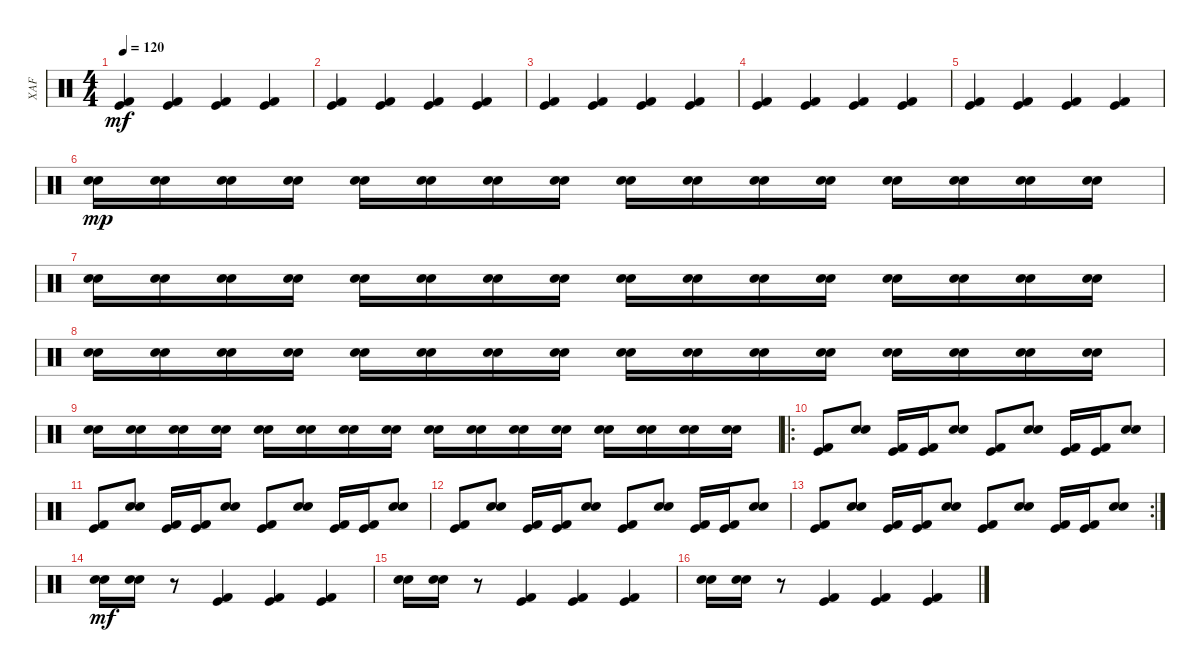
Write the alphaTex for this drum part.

\track ("XAF" "XAF") {instrument percussion}
\staff {score}
\articulation defaults
\ts (4 4)
\tempo 120
\clef neutral
\ks c
("Kick (hit) 2" "Kick (hit)").4{dy mf} ("Kick (hit) 2" "Kick (hit)").4 ("Kick (hit) 2" "Kick (hit)").4 ("Kick (hit) 2" "Kick (hit)").4 |
("Kick (hit) 2" "Kick (hit)").4 ("Kick (hit) 2" "Kick (hit)").4 ("Kick (hit) 2" "Kick (hit)").4 ("Kick (hit) 2" "Kick (hit)").4 |
("Kick (hit) 2" "Kick (hit)").4 ("Kick (hit) 2" "Kick (hit)").4 ("Kick (hit) 2" "Kick (hit)").4 ("Kick (hit) 2" "Kick (hit)").4 |
("Kick (hit) 2" "Kick (hit)").4 ("Kick (hit) 2" "Kick (hit)").4 ("Kick (hit) 2" "Kick (hit)").4 ("Kick (hit) 2" "Kick (hit)").4 |
("Kick (hit) 2" "Kick (hit)").4 ("Kick (hit) 2" "Kick (hit)").4 ("Kick (hit) 2" "Kick (hit)").4 ("Kick (hit) 2" "Kick (hit)").4 |
("Electric Snare (hit)" "Snare (hit) 2").16{dy mp} ("Electric Snare (hit)" "Snare (hit) 2").16 ("Electric Snare (hit)" "Snare (hit) 2").16 ("Electric Snare (hit)" "Snare (hit) 2").16 ("Electric Snare (hit)" "Snare (hit) 2").16 ("Electric Snare (hit)" "Snare (hit) 2").16 ("Electric Snare (hit)" "Snare (hit) 2").16 ("Electric Snare (hit)" "Snare (hit) 2").16 ("Electric Snare (hit)" "Snare (hit) 2").16 ("Electric Snare (hit)" "Snare (hit) 2").16 ("Electric Snare (hit)" "Snare (hit) 2").16 ("Electric Snare (hit)" "Snare (hit) 2").16 ("Electric Snare (hit)" "Snare (hit) 2").16 ("Electric Snare (hit)" "Snare (hit) 2").16 ("Electric Snare (hit)" "Snare (hit) 2").16 ("Electric Snare (hit)" "Snare (hit) 2").16 |
("Electric Snare (hit)" "Snare (hit) 2").16 ("Electric Snare (hit)" "Snare (hit) 2").16 ("Electric Snare (hit)" "Snare (hit) 2").16 ("Electric Snare (hit)" "Snare (hit) 2").16 ("Electric Snare (hit)" "Snare (hit) 2").16 ("Electric Snare (hit)" "Snare (hit) 2").16 ("Electric Snare (hit)" "Snare (hit) 2").16 ("Electric Snare (hit)" "Snare (hit) 2").16 ("Electric Snare (hit)" "Snare (hit) 2").16 ("Electric Snare (hit)" "Snare (hit) 2").16 ("Electric Snare (hit)" "Snare (hit) 2").16 ("Electric Snare (hit)" "Snare (hit) 2").16 ("Electric Snare (hit)" "Snare (hit) 2").16 ("Electric Snare (hit)" "Snare (hit) 2").16 ("Electric Snare (hit)" "Snare (hit) 2").16 ("Electric Snare (hit)" "Snare (hit) 2").16 |
("Electric Snare (hit)" "Snare (hit) 2").16 ("Electric Snare (hit)" "Snare (hit) 2").16 ("Electric Snare (hit)" "Snare (hit) 2").16 ("Electric Snare (hit)" "Snare (hit) 2").16 ("Electric Snare (hit)" "Snare (hit) 2").16 ("Electric Snare (hit)" "Snare (hit) 2").16 ("Electric Snare (hit)" "Snare (hit) 2").16 ("Electric Snare (hit)" "Snare (hit) 2").16 ("Electric Snare (hit)" "Snare (hit) 2").16 ("Electric Snare (hit)" "Snare (hit) 2").16 ("Electric Snare (hit)" "Snare (hit) 2").16 ("Electric Snare (hit)" "Snare (hit) 2").16 ("Electric Snare (hit)" "Snare (hit) 2").16 ("Electric Snare (hit)" "Snare (hit) 2").16 ("Electric Snare (hit)" "Snare (hit) 2").16 ("Electric Snare (hit)" "Snare (hit) 2").16 |
("Electric Snare (hit)" "Snare (hit) 2").16 ("Electric Snare (hit)" "Snare (hit) 2").16 ("Electric Snare (hit)" "Snare (hit) 2").16 ("Electric Snare (hit)" "Snare (hit) 2").16 ("Electric Snare (hit)" "Snare (hit) 2").16 ("Electric Snare (hit)" "Snare (hit) 2").16 ("Electric Snare (hit)" "Snare (hit) 2").16 ("Electric Snare (hit)" "Snare (hit) 2").16 ("Electric Snare (hit)" "Snare (hit) 2").16 ("Electric Snare (hit)" "Snare (hit) 2").16 ("Electric Snare (hit)" "Snare (hit) 2").16 ("Electric Snare (hit)" "Snare (hit) 2").16 ("Electric Snare (hit)" "Snare (hit) 2").16 ("Electric Snare (hit)" "Snare (hit) 2").16 ("Electric Snare (hit)" "Snare (hit) 2").16 ("Electric Snare (hit)" "Snare (hit) 2").16 |
\ro
("Kick (hit) 2" "Kick (hit)").8 ("Electric Snare (hit)" "Snare (hit) 2").8 ("Kick (hit) 2" "Kick (hit)").16 ("Kick (hit) 2" "Kick (hit)").16 ("Electric Snare (hit)" "Snare (hit) 2").8 ("Kick (hit) 2" "Kick (hit)").8 ("Electric Snare (hit)" "Snare (hit) 2").8 ("Kick (hit) 2" "Kick (hit)").16 ("Kick (hit) 2" "Kick (hit)").16 ("Electric Snare (hit)" "Snare (hit) 2").8 |
("Kick (hit) 2" "Kick (hit)").8 ("Electric Snare (hit)" "Snare (hit) 2").8 ("Kick (hit) 2" "Kick (hit)").16 ("Kick (hit) 2" "Kick (hit)").16 ("Electric Snare (hit)" "Snare (hit) 2").8 ("Kick (hit) 2" "Kick (hit)").8 ("Electric Snare (hit)" "Snare (hit) 2").8 ("Kick (hit) 2" "Kick (hit)").16 ("Kick (hit) 2" "Kick (hit)").16 ("Electric Snare (hit)" "Snare (hit) 2").8 |
("Kick (hit) 2" "Kick (hit)").8 ("Electric Snare (hit)" "Snare (hit) 2").8 ("Kick (hit) 2" "Kick (hit)").16 ("Kick (hit) 2" "Kick (hit)").16 ("Electric Snare (hit)" "Snare (hit) 2").8 ("Kick (hit) 2" "Kick (hit)").8 ("Electric Snare (hit)" "Snare (hit) 2").8 ("Kick (hit) 2" "Kick (hit)").16 ("Kick (hit) 2" "Kick (hit)").16 ("Electric Snare (hit)" "Snare (hit) 2").8 |
\rc 2
("Kick (hit) 2" "Kick (hit)").8 ("Electric Snare (hit)" "Snare (hit) 2").8 ("Kick (hit) 2" "Kick (hit)").16 ("Kick (hit) 2" "Kick (hit)").16 ("Electric Snare (hit)" "Snare (hit) 2").8 ("Kick (hit) 2" "Kick (hit)").8 ("Electric Snare (hit)" "Snare (hit) 2").8 ("Kick (hit) 2" "Kick (hit)").16 ("Kick (hit) 2" "Kick (hit)").16 ("Electric Snare (hit)" "Snare (hit) 2").8 |
("Electric Snare (hit)" "Snare (hit) 2").16{dy mf} ("Electric Snare (hit)" "Snare (hit) 2").16 r.8 ("Kick (hit) 2" "Kick (hit)").4 ("Kick (hit) 2" "Kick (hit)").4 ("Kick (hit) 2" "Kick (hit)").4 |
("Electric Snare (hit)" "Snare (hit) 2").16 ("Electric Snare (hit)" "Snare (hit) 2").16 r.8 ("Kick (hit) 2" "Kick (hit)").4 ("Kick (hit) 2" "Kick (hit)").4 ("Kick (hit) 2" "Kick (hit)").4 |
("Electric Snare (hit)" "Snare (hit) 2").16 ("Electric Snare (hit)" "Snare (hit) 2").16 r.8 ("Kick (hit) 2" "Kick (hit)").4 ("Kick (hit) 2" "Kick (hit)").4 ("Kick (hit) 2" "Kick (hit)").4
